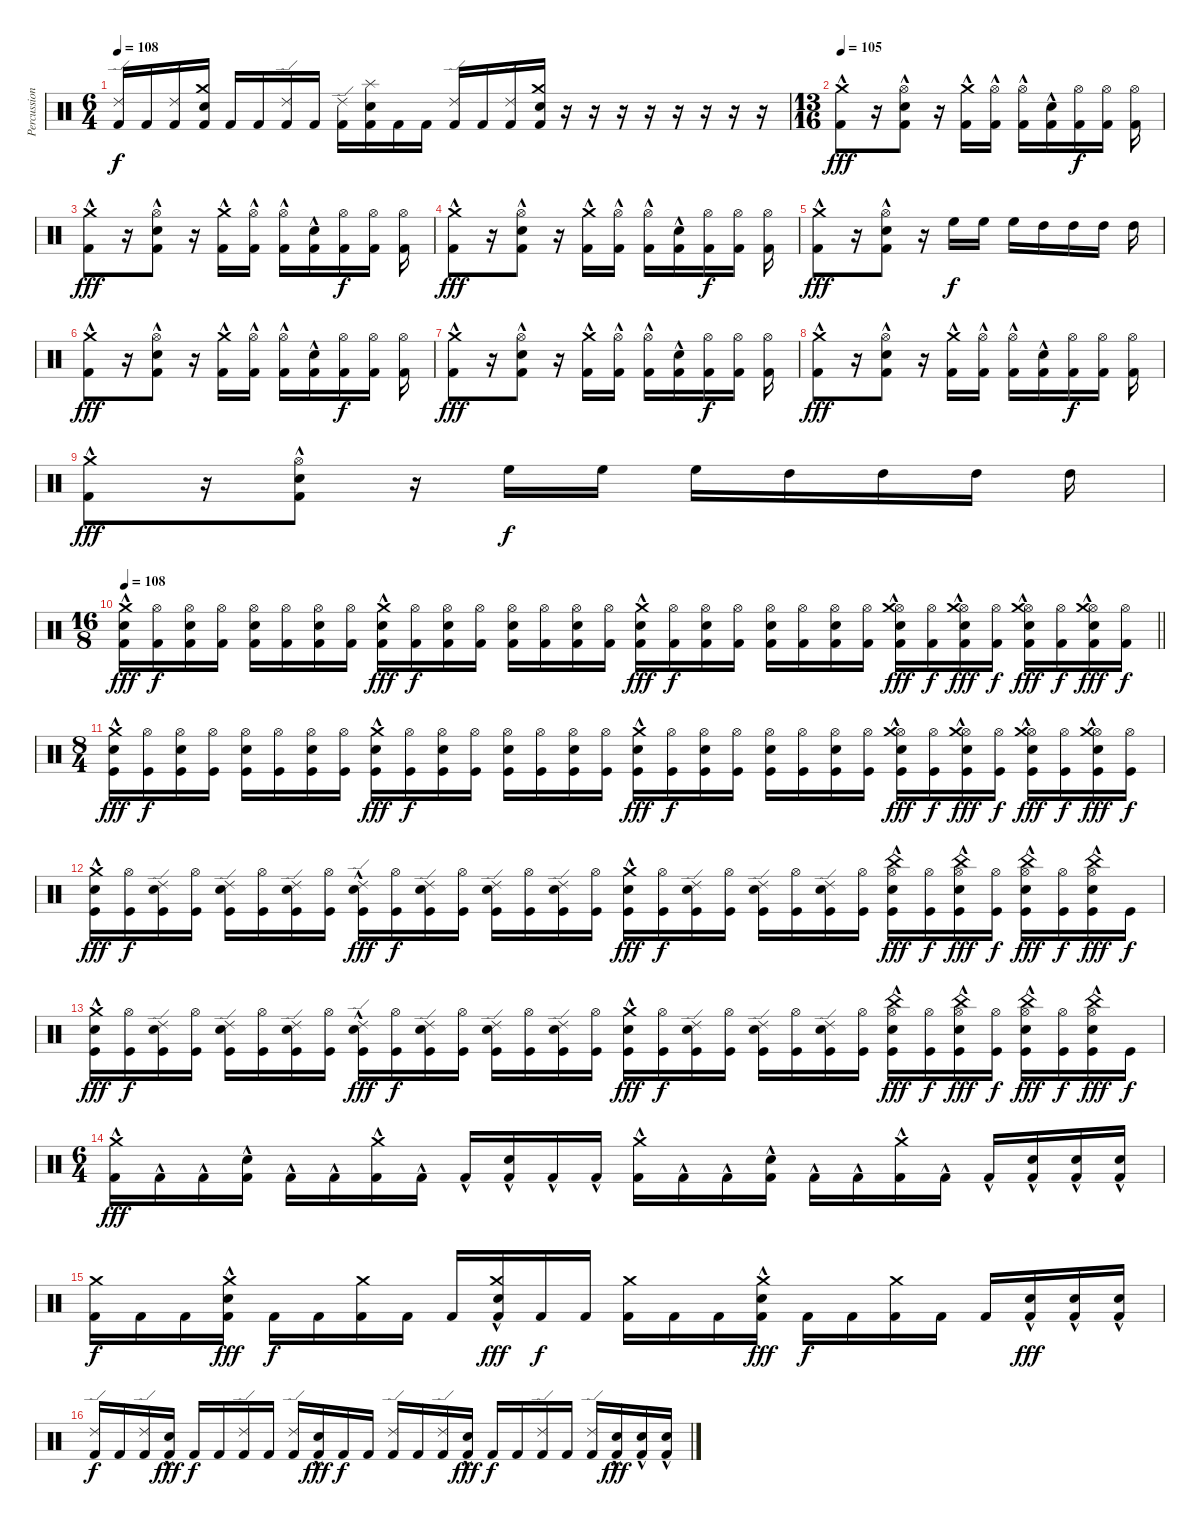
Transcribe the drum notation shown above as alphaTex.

\track ("Percussion" "Percussion") {instrument percussion}
\staff {score}
\articulation defaults
\ts (6 4)
\tempo 108
\clef neutral
\ks c
("Ride (edge) 2" "Kick (hit) 2").16{dy f} "Kick (hit) 2".16 ("Ride (edge) 2" "Kick (hit) 2").16 ("Crash medium (hit)" "Electric Snare (hit)" "Kick (hit) 2").16 "Kick (hit) 2".16 "Kick (hit) 2".16 ("Ride (edge) 2" "Kick (hit) 2").16 "Kick (hit) 2".16 ("Ride (edge) 2" "Kick (hit) 2").16 ("Splash (hit)" "Electric Snare (hit)" "Kick (hit) 2").16 "Kick (hit) 2".16 "Kick (hit) 2".16 ("Ride (edge) 2" "Kick (hit) 2").16 "Kick (hit) 2".16 ("Ride (edge) 2" "Kick (hit) 2").16 ("Electric Snare (hit)" "Crash medium (hit)" "Kick (hit) 2").16 r.16 r.16 r.16 r.16 r.16 r.16 r.16 r.16 |
\ts (13 16)
\tempo 105
("Crash medium (hit)"{hac} "Kick (hit) 2"{hac}).8{dy fff} r.16 ("Hi-Hat (open)"{hac} "Electric Snare (hit)"{hac} "Kick (hit) 2"{hac}).8 r.16 ("Crash medium (hit)" "Kick (hit) 2"{hac}).16 ("Hi-Hat (open)" "Kick (hit) 2"{hac}).16 ("Hi-Hat (open)" "Kick (hit) 2"{hac}).16 ("Electric Snare (hit)"{hac} "Kick (hit) 2"{hac}).16 ("Hi-Hat (open)" "Kick (hit) 2").16{dy f} ("Hi-Hat (open)" "Kick (hit) 2").16 ("Hi-Hat (open)" "Kick (hit) 2").16 |
("Crash medium (hit)"{hac} "Kick (hit) 2"{hac}).8{dy fff} r.16 ("Hi-Hat (open)"{hac} "Electric Snare (hit)"{hac} "Kick (hit) 2"{hac}).8 r.16 ("Crash medium (hit)" "Kick (hit) 2"{hac}).16 ("Hi-Hat (open)" "Kick (hit) 2"{hac}).16 ("Hi-Hat (open)" "Kick (hit) 2"{hac}).16 ("Electric Snare (hit)"{hac} "Kick (hit) 2"{hac}).16 ("Hi-Hat (open)" "Kick (hit) 2").16{dy f} ("Hi-Hat (open)" "Kick (hit) 2").16 ("Hi-Hat (open)" "Kick (hit) 2").16 |
("Crash medium (hit)"{hac} "Kick (hit) 2"{hac}).8{dy fff} r.16 ("Hi-Hat (open)"{hac} "Electric Snare (hit)"{hac} "Kick (hit) 2"{hac}).8 r.16 ("Crash medium (hit)" "Kick (hit) 2"{hac}).16 ("Hi-Hat (open)" "Kick (hit) 2"{hac}).16 ("Hi-Hat (open)" "Kick (hit) 2"{hac}).16 ("Electric Snare (hit)"{hac} "Kick (hit) 2"{hac}).16 ("Hi-Hat (open)" "Kick (hit) 2").16{dy f} ("Hi-Hat (open)" "Kick (hit) 2").16 ("Hi-Hat (open)" "Kick (hit) 2").16 |
("Crash medium (hit)"{hac} "Kick (hit) 2"{hac}).8{dy fff} r.16 ("Hi-Hat (open)"{hac} "Electric Snare (hit)"{hac} "Kick (hit) 2"{hac}).8 r.16 "High Floor Tom (hit)".16{dy f} "High Floor Tom (hit)".16 "High Floor Tom (hit)".16 "High Tom (hit)".16 "High Tom (hit)".16 "High Tom (hit)".16 "High Tom (hit)".16 |
("Crash medium (hit)"{hac} "Kick (hit) 2"{hac}).8{dy fff} r.16 ("Hi-Hat (open)"{hac} "Electric Snare (hit)"{hac} "Kick (hit) 2"{hac}).8 r.16 ("Crash medium (hit)" "Kick (hit) 2"{hac}).16 ("Hi-Hat (open)" "Kick (hit) 2"{hac}).16 ("Hi-Hat (open)" "Kick (hit) 2"{hac}).16 ("Electric Snare (hit)"{hac} "Kick (hit) 2"{hac}).16 ("Hi-Hat (open)" "Kick (hit) 2").16{dy f} ("Hi-Hat (open)" "Kick (hit) 2").16 ("Hi-Hat (open)" "Kick (hit) 2").16 |
("Crash medium (hit)"{hac} "Kick (hit) 2"{hac}).8{dy fff} r.16 ("Hi-Hat (open)"{hac} "Electric Snare (hit)"{hac} "Kick (hit) 2"{hac}).8 r.16 ("Crash medium (hit)" "Kick (hit) 2"{hac}).16 ("Hi-Hat (open)" "Kick (hit) 2"{hac}).16 ("Hi-Hat (open)" "Kick (hit) 2"{hac}).16 ("Electric Snare (hit)"{hac} "Kick (hit) 2"{hac}).16 ("Hi-Hat (open)" "Kick (hit) 2").16{dy f} ("Hi-Hat (open)" "Kick (hit) 2").16 ("Hi-Hat (open)" "Kick (hit) 2").16 |
("Crash medium (hit)"{hac} "Kick (hit) 2"{hac}).8{dy fff} r.16 ("Hi-Hat (open)"{hac} "Electric Snare (hit)"{hac} "Kick (hit) 2"{hac}).8 r.16 ("Crash medium (hit)" "Kick (hit) 2"{hac}).16 ("Hi-Hat (open)" "Kick (hit) 2"{hac}).16 ("Hi-Hat (open)" "Kick (hit) 2"{hac}).16 ("Electric Snare (hit)"{hac} "Kick (hit) 2"{hac}).16 ("Hi-Hat (open)" "Kick (hit) 2").16{dy f} ("Hi-Hat (open)" "Kick (hit) 2").16 ("Hi-Hat (open)" "Kick (hit) 2").16 |
("Crash medium (hit)"{hac} "Kick (hit) 2"{hac}).8{dy fff} r.16 ("Hi-Hat (open)"{hac} "Electric Snare (hit)"{hac} "Kick (hit) 2"{hac}).8 r.16 "High Floor Tom (hit)".16{dy f} "High Floor Tom (hit)".16 "High Floor Tom (hit)".16 "High Tom (hit)".16 "High Tom (hit)".16 "High Tom (hit)".16 "High Tom (hit)".16 |
\ts (16 8)
\tempo 108
\barLineRight lightlight
("Crash medium (hit)"{hac} "Electric Snare (hit)" "Kick (hit) 2").16{dy fff} ("Hi-Hat (open)" "Kick (hit) 2").16{dy f} ("Hi-Hat (open)" "Electric Snare (hit)" "Kick (hit) 2").16 ("Hi-Hat (open)" "Kick (hit) 2").16 ("Hi-Hat (open)" "Electric Snare (hit)" "Kick (hit) 2").16 ("Hi-Hat (open)" "Kick (hit) 2").16 ("Hi-Hat (open)" "Electric Snare (hit)" "Kick (hit) 2").16 ("Hi-Hat (open)" "Kick (hit) 2").16 ("Crash medium (hit)"{hac} "Electric Snare (hit)" "Kick (hit) 2").16{dy fff} ("Hi-Hat (open)" "Kick (hit) 2").16{dy f} ("Hi-Hat (open)" "Electric Snare (hit)" "Kick (hit) 2").16 ("Hi-Hat (open)" "Kick (hit) 2").16 ("Hi-Hat (open)" "Electric Snare (hit)" "Kick (hit) 2").16 ("Hi-Hat (open)" "Kick (hit) 2").16 ("Hi-Hat (open)" "Electric Snare (hit)" "Kick (hit) 2").16 ("Hi-Hat (open)" "Kick (hit) 2").16 ("Crash medium (hit)"{hac} "Electric Snare (hit)" "Kick (hit) 2").16{dy fff} ("Hi-Hat (open)" "Kick (hit) 2").16{dy f} ("Hi-Hat (open)" "Electric Snare (hit)" "Kick (hit) 2").16 ("Hi-Hat (open)" "Kick (hit) 2").16 ("Hi-Hat (open)" "Electric Snare (hit)" "Kick (hit) 2").16 ("Hi-Hat (open)" "Kick (hit) 2").16 ("Hi-Hat (open)" "Electric Snare (hit)" "Kick (hit) 2").16 ("Hi-Hat (open)" "Kick (hit) 2").16 ("Hi-Hat (open)" "Crash medium (hit)"{hac} "Electric Snare (hit)" "Kick (hit) 2").16{dy fff} ("Hi-Hat (open)" "Kick (hit) 2").16{dy f} ("Hi-Hat (open)" "Crash medium (hit)"{hac} "Electric Snare (hit)" "Kick (hit) 2").16{dy fff} ("Hi-Hat (open)" "Kick (hit) 2").16{dy f} ("Hi-Hat (open)" "Crash medium (hit)"{hac} "Electric Snare (hit)" "Kick (hit) 2").16{dy fff} ("Hi-Hat (open)" "Kick (hit) 2").16{dy f} ("Hi-Hat (open)" "Crash medium (hit)"{hac} "Electric Snare (hit)" "Kick (hit) 2").16{dy fff} ("Hi-Hat (open)" "Kick (hit) 2").16{dy f} |
\ts (8 4)
("Crash medium (hit)"{hac} "Snare (hit) 2" "Kick (hit)").16{dy fff} ("Hi-Hat (open)" "Kick (hit)").16{dy f} ("Hi-Hat (open)" "Snare (hit) 2" "Kick (hit)").16 ("Hi-Hat (open)" "Kick (hit)").16 ("Hi-Hat (open)" "Snare (hit) 2" "Kick (hit)").16 ("Hi-Hat (open)" "Kick (hit)").16 ("Hi-Hat (open)" "Snare (hit) 2" "Kick (hit)").16 ("Hi-Hat (open)" "Kick (hit)").16 ("Crash medium (hit)"{hac} "Snare (hit) 2" "Kick (hit)").16{dy fff} ("Hi-Hat (open)" "Kick (hit)").16{dy f} ("Hi-Hat (open)" "Snare (hit) 2" "Kick (hit)").16 ("Hi-Hat (open)" "Kick (hit)").16 ("Hi-Hat (open)" "Snare (hit) 2" "Kick (hit)").16 ("Hi-Hat (open)" "Kick (hit)").16 ("Hi-Hat (open)" "Snare (hit) 2" "Kick (hit)").16 ("Hi-Hat (open)" "Kick (hit)").16 ("Crash medium (hit)"{hac} "Snare (hit) 2" "Kick (hit)").16{dy fff} ("Hi-Hat (open)" "Kick (hit)").16{dy f} ("Hi-Hat (open)" "Snare (hit) 2" "Kick (hit)").16 ("Hi-Hat (open)" "Kick (hit)").16 ("Hi-Hat (open)" "Snare (hit) 2" "Kick (hit)").16 ("Hi-Hat (open)" "Kick (hit)").16 ("Hi-Hat (open)" "Snare (hit) 2" "Kick (hit)").16 ("Hi-Hat (open)" "Kick (hit)").16 ("Hi-Hat (open)" "Crash medium (hit)"{hac} "Snare (hit) 2" "Kick (hit)").16{dy fff} ("Hi-Hat (open)" "Kick (hit)").16{dy f} ("Hi-Hat (open)" "Crash medium (hit)"{hac} "Snare (hit) 2" "Kick (hit)").16{dy fff} ("Hi-Hat (open)" "Kick (hit)").16{dy f} ("Hi-Hat (open)" "Crash medium (hit)"{hac} "Snare (hit) 2" "Kick (hit)").16{dy fff} ("Hi-Hat (open)" "Kick (hit)").16{dy f} ("Hi-Hat (open)" "Crash medium (hit)"{hac} "Snare (hit) 2" "Kick (hit)").16{dy fff} ("Hi-Hat (open)" "Kick (hit)").16{dy f} |
("Crash medium (hit)"{hac} "Snare (hit) 2" "Kick (hit)").16{dy fff} ("Hi-Hat (open)" "Kick (hit)").16{dy f} ("Ride (edge) 2" "Snare (hit) 2" "Kick (hit)").16 ("Hi-Hat (open)" "Kick (hit)").16 ("Ride (edge) 2" "Snare (hit) 2" "Kick (hit)").16 ("Hi-Hat (open)" "Kick (hit)").16 ("Ride (edge) 2" "Snare (hit) 2" "Kick (hit)").16 ("Hi-Hat (open)" "Kick (hit)").16 ("Ride (edge) 2"{hac} "Snare (hit) 2" "Kick (hit)").16{dy fff} ("Hi-Hat (open)" "Kick (hit)").16{dy f} ("Ride (edge) 2" "Snare (hit) 2" "Kick (hit)").16 ("Hi-Hat (open)" "Kick (hit)").16 ("Ride (edge) 2" "Snare (hit) 2" "Kick (hit)").16 ("Hi-Hat (open)" "Kick (hit)").16 ("Ride (edge) 2" "Snare (hit) 2" "Kick (hit)").16 ("Hi-Hat (open)" "Kick (hit)").16 ("Crash medium (hit)"{hac} "Snare (hit) 2" "Kick (hit)").16{dy fff} ("Hi-Hat (open)" "Kick (hit)").16{dy f} ("Ride (edge) 2" "Snare (hit) 2" "Kick (hit)").16 ("Hi-Hat (open)" "Kick (hit)").16 ("Ride (edge) 2" "Snare (hit) 2" "Kick (hit)").16 ("Hi-Hat (open)" "Kick (hit)").16 ("Ride (edge) 2" "Snare (hit) 2" "Kick (hit)").16 ("Hi-Hat (open)" "Kick (hit)").16 ("Hi-Hat (open)" "China (hit)"{hac} "Snare (hit) 2" "Kick (hit)").16{dy fff} ("Hi-Hat (open)" "Kick (hit)").16{dy f} ("Hi-Hat (open)" "China (hit)"{hac} "Snare (hit) 2" "Kick (hit)").16{dy fff} ("Hi-Hat (open)" "Kick (hit)").16{dy f} ("Hi-Hat (open)" "China (hit)"{hac} "Snare (hit) 2" "Kick (hit)").16{dy fff} ("Hi-Hat (open)" "Kick (hit)").16{dy f} ("Hi-Hat (open)" "China (hit)"{hac} "Snare (hit) 2" "Kick (hit)").16{dy fff} "Kick (hit)".16{dy f} |
("Crash medium (hit)"{hac} "Snare (hit) 2" "Kick (hit)").16{dy fff} ("Hi-Hat (open)" "Kick (hit)").16{dy f} ("Ride (edge) 2" "Snare (hit) 2" "Kick (hit)").16 ("Hi-Hat (open)" "Kick (hit)").16 ("Ride (edge) 2" "Snare (hit) 2" "Kick (hit)").16 ("Hi-Hat (open)" "Kick (hit)").16 ("Ride (edge) 2" "Snare (hit) 2" "Kick (hit)").16 ("Hi-Hat (open)" "Kick (hit)").16 ("Ride (edge) 2"{hac} "Snare (hit) 2" "Kick (hit)").16{dy fff} ("Hi-Hat (open)" "Kick (hit)").16{dy f} ("Ride (edge) 2" "Snare (hit) 2" "Kick (hit)").16 ("Hi-Hat (open)" "Kick (hit)").16 ("Ride (edge) 2" "Snare (hit) 2" "Kick (hit)").16 ("Hi-Hat (open)" "Kick (hit)").16 ("Ride (edge) 2" "Snare (hit) 2" "Kick (hit)").16 ("Hi-Hat (open)" "Kick (hit)").16 ("Crash medium (hit)"{hac} "Snare (hit) 2" "Kick (hit)").16{dy fff} ("Hi-Hat (open)" "Kick (hit)").16{dy f} ("Ride (edge) 2" "Snare (hit) 2" "Kick (hit)").16 ("Hi-Hat (open)" "Kick (hit)").16 ("Ride (edge) 2" "Snare (hit) 2" "Kick (hit)").16 ("Hi-Hat (open)" "Kick (hit)").16 ("Ride (edge) 2" "Snare (hit) 2" "Kick (hit)").16 ("Hi-Hat (open)" "Kick (hit)").16 ("Hi-Hat (open)" "China (hit)"{hac} "Snare (hit) 2" "Kick (hit)").16{dy fff} ("Hi-Hat (open)" "Kick (hit)").16{dy f} ("Hi-Hat (open)" "China (hit)"{hac} "Snare (hit) 2" "Kick (hit)").16{dy fff} ("Hi-Hat (open)" "Kick (hit)").16{dy f} ("Hi-Hat (open)" "China (hit)"{hac} "Snare (hit) 2" "Kick (hit)").16{dy fff} ("Hi-Hat (open)" "Kick (hit)").16{dy f} ("Hi-Hat (open)" "China (hit)"{hac} "Snare (hit) 2" "Kick (hit)").16{dy fff} "Kick (hit)".16{dy f} |
\ts (6 4)
("Crash medium (hit)" "Kick (hit) 2"{hac}).16{dy fff} "Kick (hit) 2"{hac}.16 "Kick (hit) 2"{hac}.16 ("Electric Snare (hit)"{hac} "Kick (hit) 2"{hac}).16 "Kick (hit) 2"{hac}.16 "Kick (hit) 2"{hac}.16 ("Crash medium (hit)" "Kick (hit) 2"{hac}).16 "Kick (hit) 2"{hac}.16 "Kick (hit) 2"{hac}.16 ("Electric Snare (hit)"{hac} "Kick (hit) 2"{hac}).16 "Kick (hit) 2"{hac}.16 "Kick (hit) 2"{hac}.16 ("Crash medium (hit)" "Kick (hit) 2"{hac}).16 "Kick (hit) 2"{hac}.16 "Kick (hit) 2"{hac}.16 ("Electric Snare (hit)"{hac} "Kick (hit) 2"{hac}).16 "Kick (hit) 2"{hac}.16 "Kick (hit) 2"{hac}.16 ("Crash medium (hit)" "Kick (hit) 2"{hac}).16 "Kick (hit) 2"{hac}.16 "Kick (hit) 2"{hac}.16 ("Snare (hit) 2"{hac} "Kick (hit) 2"{hac}).16 ("Snare (hit) 2"{hac} "Kick (hit) 2"{hac}).16 ("Snare (hit) 2"{hac} "Kick (hit) 2"{hac}).16 |
("Crash medium (hit)" "Kick (hit) 2").16{dy f} "Kick (hit) 2".16 "Kick (hit) 2".16 ("Crash medium (hit)" "Electric Snare (hit)"{hac} "Kick (hit) 2").16{dy fff} "Kick (hit) 2".16{dy f} "Kick (hit) 2".16 ("Crash medium (hit)" "Kick (hit) 2").16 "Kick (hit) 2".16 "Kick (hit) 2".16 ("Crash medium (hit)" "Electric Snare (hit)"{hac} "Kick (hit) 2").16{dy fff} "Kick (hit) 2".16{dy f} "Kick (hit) 2".16 ("Crash medium (hit)" "Kick (hit) 2").16 "Kick (hit) 2".16 "Kick (hit) 2".16 ("Crash medium (hit)" "Electric Snare (hit)"{hac} "Kick (hit) 2").16{dy fff} "Kick (hit) 2".16{dy f} "Kick (hit) 2".16 ("Crash medium (hit)" "Kick (hit) 2").16 "Kick (hit) 2".16 "Kick (hit) 2".16 ("Snare (hit) 2"{hac} "Kick (hit) 2").16{dy fff} ("Snare (hit) 2"{hac} "Kick (hit) 2").16 ("Snare (hit) 2"{hac} "Kick (hit) 2").16 |
("Ride (edge) 2" "Kick (hit) 2").16{dy f} "Kick (hit) 2".16 ("Ride (edge) 2" "Kick (hit) 2").16 ("Electric Snare (hit)"{hac} "Kick (hit) 2").16{dy fff} "Kick (hit) 2".16{dy f} "Kick (hit) 2".16 ("Ride (edge) 2" "Kick (hit) 2").16 "Kick (hit) 2".16 ("Ride (edge) 2" "Kick (hit) 2").16 ("Electric Snare (hit)"{hac} "Kick (hit) 2").16{dy fff} "Kick (hit) 2".16{dy f} "Kick (hit) 2".16 ("Ride (edge) 2" "Kick (hit) 2").16 "Kick (hit) 2".16 ("Ride (edge) 2" "Kick (hit) 2").16 ("Electric Snare (hit)"{hac} "Kick (hit) 2").16{dy fff} "Kick (hit) 2".16{dy f} "Kick (hit) 2".16 ("Ride (edge) 2" "Kick (hit) 2").16 "Kick (hit) 2".16 ("Ride (edge) 2" "Kick (hit) 2").16 ("Snare (hit) 2"{hac} "Kick (hit) 2").16{dy fff} ("Snare (hit) 2"{hac} "Kick (hit) 2").16 ("Snare (hit) 2"{hac} "Kick (hit) 2").16
